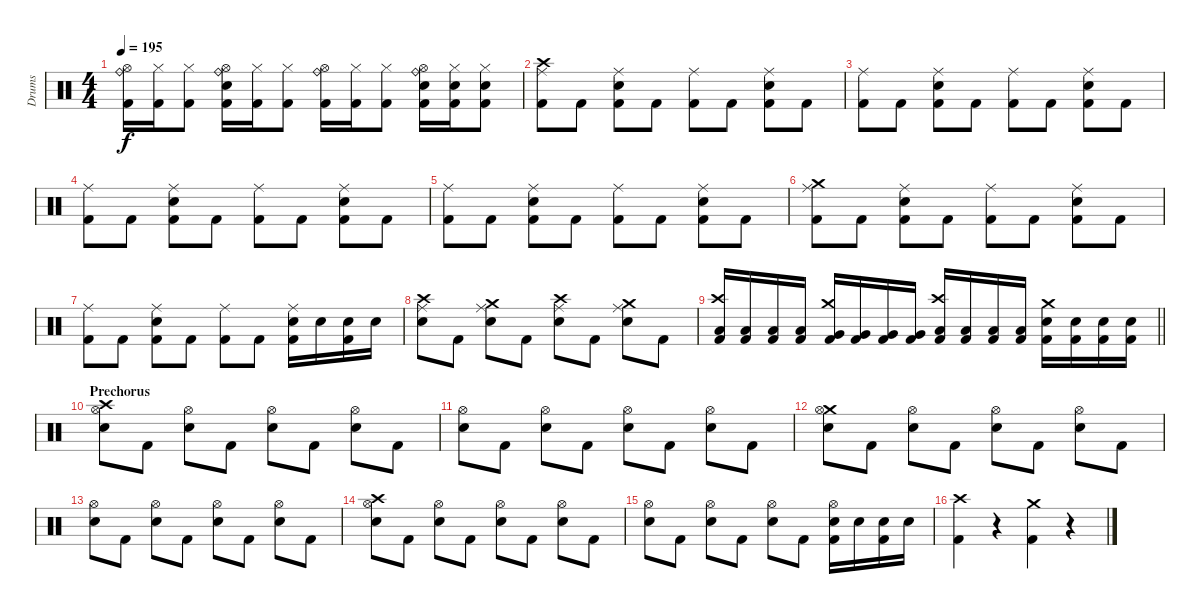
\track ("Drums" "Drums") {instrument percussion}
\staff {score}
\articulation defaults
\ts (4 4)
\tempo 195
\clef neutral
\ks c
("Ride (bell)" "Hi-Hat (open)" "Kick (hit) 2").16{dy f} ("Hi-Hat (closed)" "Kick (hit) 2").16 ("Hi-Hat (closed)" "Kick (hit) 2").8 ("Ride (bell)" "Hi-Hat (open)" "Snare (hit) 2" "Kick (hit) 2").16 ("Hi-Hat (closed)" "Kick (hit) 2").16 ("Hi-Hat (closed)" "Kick (hit) 2").8 ("Ride (bell)" "Hi-Hat (open)" "Kick (hit) 2").16 ("Hi-Hat (closed)" "Kick (hit) 2").16 ("Hi-Hat (closed)" "Kick (hit) 2").8 ("Ride (bell)" "Hi-Hat (open)" "Snare (hit) 2" "Kick (hit) 2").16 ("Hi-Hat (closed)" "Snare (hit) 2" "Kick (hit) 2").16 ("Hi-Hat (closed)" "Snare (hit) 2" "Kick (hit) 2").8 |
("Crash high (hit)" "Ride (middle)" "Kick (hit) 2").8 "Kick (hit) 2".8 ("Ride (middle)" "Snare (hit) 2" "Kick (hit) 2").8 "Kick (hit) 2".8 ("Ride (middle)" "Kick (hit) 2").8 "Kick (hit) 2".8 ("Ride (middle)" "Snare (hit) 2" "Kick (hit) 2").8 "Kick (hit) 2".8 |
("Ride (middle)" "Kick (hit) 2").8 "Kick (hit) 2".8 ("Ride (middle)" "Snare (hit) 2" "Kick (hit) 2").8 "Kick (hit) 2".8 ("Ride (middle)" "Kick (hit) 2").8 "Kick (hit) 2".8 ("Ride (middle)" "Snare (hit) 2" "Kick (hit) 2").8 "Kick (hit) 2".8 |
("Ride (middle)" "Kick (hit) 2").8 "Kick (hit) 2".8 ("Ride (middle)" "Snare (hit) 2" "Kick (hit) 2").8 "Kick (hit) 2".8 ("Ride (middle)" "Kick (hit) 2").8 "Kick (hit) 2".8 ("Ride (middle)" "Snare (hit) 2" "Kick (hit) 2").8 "Kick (hit) 2".8 |
("Ride (middle)" "Kick (hit) 2").8 "Kick (hit) 2".8 ("Ride (middle)" "Snare (hit) 2" "Kick (hit) 2").8 "Kick (hit) 2".8 ("Ride (middle)" "Kick (hit) 2").8 "Kick (hit) 2".8 ("Ride (middle)" "Snare (hit) 2" "Kick (hit) 2").8 "Kick (hit) 2".8 |
("Crash medium (hit)" "Ride (middle)" "Kick (hit) 2").8 "Kick (hit) 2".8 ("Ride (middle)" "Snare (hit) 2" "Kick (hit) 2").8 "Kick (hit) 2".8 ("Ride (middle)" "Kick (hit) 2").8 "Kick (hit) 2".8 ("Ride (middle)" "Snare (hit) 2" "Kick (hit) 2").8 "Kick (hit) 2".8 |
("Ride (middle)" "Kick (hit) 2").8 "Kick (hit) 2".8 ("Ride (middle)" "Snare (hit) 2" "Kick (hit) 2").8 "Kick (hit) 2".8 ("Ride (middle)" "Kick (hit) 2").8 "Kick (hit) 2".8 ("Ride (middle)" "Snare (hit) 2" "Kick (hit) 2").16 "Snare (hit) 2".16 ("Snare (hit) 2" "Kick (hit) 2").16 "Snare (hit) 2".16 |
("Crash high (hit)" "Ride (middle)" "Snare (hit) 2").8 "Kick (hit) 2".8 ("Crash medium (hit)" "Ride (middle)" "Snare (hit) 2").8 "Kick (hit) 2".8 ("Crash high (hit)" "Ride (middle)" "Snare (hit) 2").8 "Kick (hit) 2".8 ("Crash medium (hit)" "Ride (middle)" "Snare (hit) 2").8 "Kick (hit) 2".8 |
\barLineRight lightlight
("Crash high (hit)" "Low Tom (hit)" "Kick (hit) 2").16 ("Low Tom (hit)" "Kick (hit) 2").16 ("Low Tom (hit)" "Kick (hit) 2").16 ("Low Tom (hit)" "Kick (hit) 2").16 ("Crash medium (hit)" "Very Low Tom (hit)" "Kick (hit) 2").16 ("Very Low Tom (hit)" "Kick (hit) 2").16 ("Very Low Tom (hit)" "Kick (hit) 2").16 ("Very Low Tom (hit)" "Kick (hit) 2").16 ("Crash high (hit)" "Low Floor Tom (hit)" "Kick (hit) 2").16 ("Low Floor Tom (hit)" "Kick (hit) 2").16 ("Low Floor Tom (hit)" "Kick (hit) 2").16 ("Low Floor Tom (hit)" "Kick (hit) 2").16 ("Crash medium (hit)" "Snare (hit) 2" "Kick (hit) 2").16 ("Snare (hit) 2" "Kick (hit) 2").16 ("Snare (hit) 2" "Kick (hit) 2").16 ("Snare (hit) 2" "Kick (hit) 2").16 |
\section ("" "Prechorus")
("Crash high (hit)" "Hi-Hat (open)" "Snare (hit) 2").8 "Kick (hit) 2".8 ("Hi-Hat (open)" "Snare (hit) 2").8 "Kick (hit) 2".8 ("Hi-Hat (open)" "Snare (hit) 2").8 "Kick (hit) 2".8 ("Hi-Hat (open)" "Snare (hit) 2").8 "Kick (hit) 2".8 |
("Hi-Hat (open)" "Snare (hit) 2").8 "Kick (hit) 2".8 ("Hi-Hat (open)" "Snare (hit) 2").8 "Kick (hit) 2".8 ("Hi-Hat (open)" "Snare (hit) 2").8 "Kick (hit) 2".8 ("Hi-Hat (open)" "Snare (hit) 2").8 "Kick (hit) 2".8 |
("Crash medium (hit)" "Hi-Hat (open)" "Snare (hit) 2").8 "Kick (hit) 2".8 ("Hi-Hat (open)" "Snare (hit) 2").8 "Kick (hit) 2".8 ("Hi-Hat (open)" "Snare (hit) 2").8 "Kick (hit) 2".8 ("Hi-Hat (open)" "Snare (hit) 2").8 "Kick (hit) 2".8 |
("Hi-Hat (open)" "Snare (hit) 2").8 "Kick (hit) 2".8 ("Hi-Hat (open)" "Snare (hit) 2").8 "Kick (hit) 2".8 ("Hi-Hat (open)" "Snare (hit) 2").8 "Kick (hit) 2".8 ("Hi-Hat (open)" "Snare (hit) 2").8 "Kick (hit) 2".8 |
("Crash high (hit)" "Hi-Hat (open)" "Snare (hit) 2").8 "Kick (hit) 2".8 ("Hi-Hat (open)" "Snare (hit) 2").8 "Kick (hit) 2".8 ("Hi-Hat (open)" "Snare (hit) 2").8 "Kick (hit) 2".8 ("Hi-Hat (open)" "Snare (hit) 2").8 "Kick (hit) 2".8 |
("Hi-Hat (open)" "Snare (hit) 2").8 "Kick (hit) 2".8 ("Hi-Hat (open)" "Snare (hit) 2").8 "Kick (hit) 2".8 ("Hi-Hat (open)" "Snare (hit) 2").8 "Kick (hit) 2".8 ("Hi-Hat (open)" "Snare (hit) 2" "Kick (hit) 2").16 "Snare (hit) 2".16 ("Snare (hit) 2" "Kick (hit) 2").16 "Snare (hit) 2".16 |
("Crash high (hit)" "Kick (hit) 2").4 r.4 ("Crash medium (hit)" "Kick (hit) 2").4 r.4
